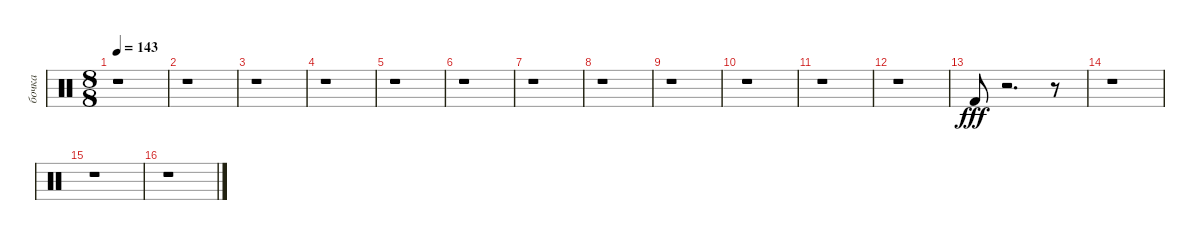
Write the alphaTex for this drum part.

\track ("бочка" "бочка") {instrument percussion}
\staff {score}
\articulation defaults
\ts (8 8)
\tempo 143
\clef neutral
\ks c
r.1{dy fff} |
r.1 |
r.1 |
r.1 |
r.1 |
r.1 |
r.1 |
r.1 |
r.1 |
r.1 |
r.1 |
r.1 |
"Kick (hit) 2".8 r.2{d} r.8 |
r.1 |
r.1 |
r.1
